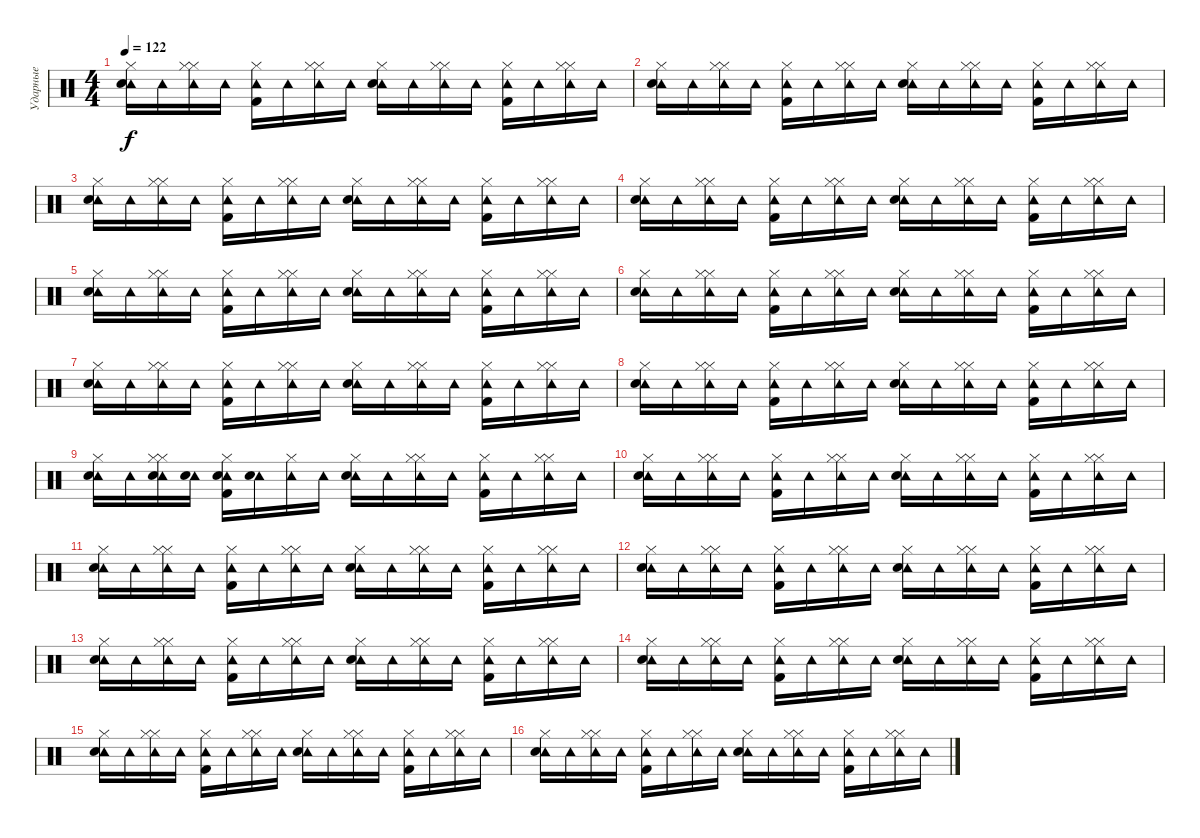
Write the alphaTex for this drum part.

\track ("Ударные" "Ударные") {instrument percussion}
\staff {score}
\articulation defaults
\ts (4 4)
\tempo 122
\clef neutral
\ks c
("Tambourine (hit)" "Hi-Hat (closed)" "Snare (hit) 2").16{dy f} "Tambourine (hit)".16 ("Tambourine (hit)" "Hi-Hat (closed)" "Hi-Hat (closed)").16 "Tambourine (hit)".16 ("Tambourine (hit)" "Hi-Hat (closed)" "Kick (hit) 2").16 "Tambourine (hit)".16 ("Tambourine (hit)" "Hi-Hat (closed)" "Hi-Hat (closed)").16 "Tambourine (hit)".16 ("Tambourine (hit)" "Hi-Hat (closed)" "Snare (hit) 2").16 "Tambourine (hit)".16 ("Tambourine (hit)" "Hi-Hat (closed)" "Hi-Hat (closed)").16 "Tambourine (hit)".16 ("Tambourine (hit)" "Hi-Hat (closed)" "Kick (hit) 2").16 "Tambourine (hit)".16 ("Tambourine (hit)" "Hi-Hat (closed)" "Hi-Hat (closed)").16 "Tambourine (hit)".16 |
("Tambourine (hit)" "Hi-Hat (closed)" "Snare (hit) 2").16 "Tambourine (hit)".16 ("Tambourine (hit)" "Hi-Hat (closed)" "Hi-Hat (closed)").16 "Tambourine (hit)".16 ("Tambourine (hit)" "Hi-Hat (closed)" "Kick (hit) 2").16 "Tambourine (hit)".16 ("Tambourine (hit)" "Hi-Hat (closed)" "Hi-Hat (closed)").16 "Tambourine (hit)".16 ("Tambourine (hit)" "Hi-Hat (closed)" "Snare (hit) 2").16 "Tambourine (hit)".16 ("Tambourine (hit)" "Hi-Hat (closed)" "Hi-Hat (closed)").16 "Tambourine (hit)".16 ("Tambourine (hit)" "Hi-Hat (closed)" "Kick (hit) 2").16 "Tambourine (hit)".16 ("Tambourine (hit)" "Hi-Hat (closed)" "Hi-Hat (closed)").16 "Tambourine (hit)".16 |
("Tambourine (hit)" "Hi-Hat (closed)" "Snare (hit) 2").16 "Tambourine (hit)".16 ("Tambourine (hit)" "Hi-Hat (closed)" "Hi-Hat (closed)").16 "Tambourine (hit)".16 ("Tambourine (hit)" "Hi-Hat (closed)" "Kick (hit) 2").16 "Tambourine (hit)".16 ("Tambourine (hit)" "Hi-Hat (closed)" "Hi-Hat (closed)").16 "Tambourine (hit)".16 ("Tambourine (hit)" "Hi-Hat (closed)" "Snare (hit) 2").16 "Tambourine (hit)".16 ("Tambourine (hit)" "Hi-Hat (closed)" "Hi-Hat (closed)").16 "Tambourine (hit)".16 ("Tambourine (hit)" "Hi-Hat (closed)" "Kick (hit) 2").16 "Tambourine (hit)".16 ("Tambourine (hit)" "Hi-Hat (closed)" "Hi-Hat (closed)").16 "Tambourine (hit)".16 |
("Tambourine (hit)" "Hi-Hat (closed)" "Snare (hit) 2").16 "Tambourine (hit)".16 ("Tambourine (hit)" "Hi-Hat (closed)" "Hi-Hat (closed)").16 "Tambourine (hit)".16 ("Tambourine (hit)" "Hi-Hat (closed)" "Kick (hit) 2").16 "Tambourine (hit)".16 ("Tambourine (hit)" "Hi-Hat (closed)" "Hi-Hat (closed)").16 "Tambourine (hit)".16 ("Tambourine (hit)" "Hi-Hat (closed)" "Snare (hit) 2").16 "Tambourine (hit)".16 ("Tambourine (hit)" "Hi-Hat (closed)" "Hi-Hat (closed)").16 "Tambourine (hit)".16 ("Tambourine (hit)" "Hi-Hat (closed)" "Kick (hit) 2").16 "Tambourine (hit)".16 ("Tambourine (hit)" "Hi-Hat (closed)" "Hi-Hat (closed)").16 "Tambourine (hit)".16 |
("Tambourine (hit)" "Hi-Hat (closed)" "Snare (hit) 2").16 "Tambourine (hit)".16 ("Tambourine (hit)" "Hi-Hat (closed)" "Hi-Hat (closed)").16 "Tambourine (hit)".16 ("Tambourine (hit)" "Hi-Hat (closed)" "Kick (hit) 2").16 "Tambourine (hit)".16 ("Tambourine (hit)" "Hi-Hat (closed)" "Hi-Hat (closed)").16 "Tambourine (hit)".16 ("Tambourine (hit)" "Hi-Hat (closed)" "Snare (hit) 2").16 "Tambourine (hit)".16 ("Tambourine (hit)" "Hi-Hat (closed)" "Hi-Hat (closed)").16 "Tambourine (hit)".16 ("Tambourine (hit)" "Hi-Hat (closed)" "Kick (hit) 2").16 "Tambourine (hit)".16 ("Tambourine (hit)" "Hi-Hat (closed)" "Hi-Hat (closed)").16 "Tambourine (hit)".16 |
("Tambourine (hit)" "Hi-Hat (closed)" "Snare (hit) 2").16 "Tambourine (hit)".16 ("Tambourine (hit)" "Hi-Hat (closed)" "Hi-Hat (closed)").16 "Tambourine (hit)".16 ("Tambourine (hit)" "Hi-Hat (closed)" "Kick (hit) 2").16 "Tambourine (hit)".16 ("Tambourine (hit)" "Hi-Hat (closed)" "Hi-Hat (closed)").16 "Tambourine (hit)".16 ("Tambourine (hit)" "Hi-Hat (closed)" "Snare (hit) 2").16 "Tambourine (hit)".16 ("Tambourine (hit)" "Hi-Hat (closed)" "Hi-Hat (closed)").16 "Tambourine (hit)".16 ("Tambourine (hit)" "Hi-Hat (closed)" "Kick (hit) 2").16 "Tambourine (hit)".16 ("Tambourine (hit)" "Hi-Hat (closed)" "Hi-Hat (closed)").16 "Tambourine (hit)".16 |
("Tambourine (hit)" "Hi-Hat (closed)" "Snare (hit) 2").16 "Tambourine (hit)".16 ("Tambourine (hit)" "Hi-Hat (closed)" "Hi-Hat (closed)").16 "Tambourine (hit)".16 ("Tambourine (hit)" "Hi-Hat (closed)" "Kick (hit) 2").16 "Tambourine (hit)".16 ("Tambourine (hit)" "Hi-Hat (closed)" "Hi-Hat (closed)").16 "Tambourine (hit)".16 ("Tambourine (hit)" "Hi-Hat (closed)" "Snare (hit) 2").16 "Tambourine (hit)".16 ("Tambourine (hit)" "Hi-Hat (closed)" "Hi-Hat (closed)").16 "Tambourine (hit)".16 ("Tambourine (hit)" "Hi-Hat (closed)" "Kick (hit) 2").16 "Tambourine (hit)".16 ("Tambourine (hit)" "Hi-Hat (closed)" "Hi-Hat (closed)").16 "Tambourine (hit)".16 |
("Tambourine (hit)" "Hi-Hat (closed)" "Snare (hit) 2").16 "Tambourine (hit)".16 ("Tambourine (hit)" "Hi-Hat (closed)" "Hi-Hat (closed)").16 "Tambourine (hit)".16 ("Tambourine (hit)" "Hi-Hat (closed)" "Kick (hit) 2").16 "Tambourine (hit)".16 ("Tambourine (hit)" "Hi-Hat (closed)" "Hi-Hat (closed)").16 "Tambourine (hit)".16 ("Tambourine (hit)" "Hi-Hat (closed)" "Snare (hit) 2").16 "Tambourine (hit)".16 ("Tambourine (hit)" "Hi-Hat (closed)" "Hi-Hat (closed)").16 "Tambourine (hit)".16 ("Tambourine (hit)" "Hi-Hat (closed)" "Kick (hit) 2").16 "Tambourine (hit)".16 ("Tambourine (hit)" "Hi-Hat (closed)" "Hi-Hat (closed)").16 "Tambourine (hit)".16 |
("Tambourine (hit)" "Hi-Hat (closed)" "Snare (hit) 2").16 "Tambourine (hit)".16 ("Tambourine (hit)" "Hi-Hat (closed)" "Hi-Hat (closed)" "Electric Snare (hit)").16 ("Tambourine (hit)" "Electric Snare (hit)").16 ("Tambourine (hit)" "Hi-Hat (closed)" "Kick (hit) 2" "Electric Snare (hit)").16 ("Tambourine (hit)" "Electric Snare (hit)").16 ("Tambourine (hit)" "Hi-Hat (closed)").16 "Tambourine (hit)".16 ("Tambourine (hit)" "Hi-Hat (closed)" "Snare (hit) 2").16 "Tambourine (hit)".16 ("Tambourine (hit)" "Hi-Hat (closed)" "Hi-Hat (closed)").16 "Tambourine (hit)".16 ("Tambourine (hit)" "Hi-Hat (closed)" "Kick (hit) 2").16 "Tambourine (hit)".16 ("Tambourine (hit)" "Hi-Hat (closed)" "Hi-Hat (closed)").16 "Tambourine (hit)".16 |
("Tambourine (hit)" "Hi-Hat (closed)" "Snare (hit) 2").16 "Tambourine (hit)".16 ("Tambourine (hit)" "Hi-Hat (closed)" "Hi-Hat (closed)").16 "Tambourine (hit)".16 ("Tambourine (hit)" "Hi-Hat (closed)" "Kick (hit) 2").16 "Tambourine (hit)".16 ("Tambourine (hit)" "Hi-Hat (closed)" "Hi-Hat (closed)").16 "Tambourine (hit)".16 ("Tambourine (hit)" "Hi-Hat (closed)" "Snare (hit) 2").16 "Tambourine (hit)".16 ("Tambourine (hit)" "Hi-Hat (closed)" "Hi-Hat (closed)").16 "Tambourine (hit)".16 ("Tambourine (hit)" "Hi-Hat (closed)" "Kick (hit) 2").16 "Tambourine (hit)".16 ("Tambourine (hit)" "Hi-Hat (closed)" "Hi-Hat (closed)").16 "Tambourine (hit)".16 |
("Tambourine (hit)" "Hi-Hat (closed)" "Snare (hit) 2").16 "Tambourine (hit)".16 ("Tambourine (hit)" "Hi-Hat (closed)" "Hi-Hat (closed)").16 "Tambourine (hit)".16 ("Tambourine (hit)" "Hi-Hat (closed)" "Kick (hit) 2").16 "Tambourine (hit)".16 ("Tambourine (hit)" "Hi-Hat (closed)" "Hi-Hat (closed)").16 "Tambourine (hit)".16 ("Tambourine (hit)" "Hi-Hat (closed)" "Snare (hit) 2").16 "Tambourine (hit)".16 ("Tambourine (hit)" "Hi-Hat (closed)" "Hi-Hat (closed)").16 "Tambourine (hit)".16 ("Tambourine (hit)" "Hi-Hat (closed)" "Kick (hit) 2").16 "Tambourine (hit)".16 ("Tambourine (hit)" "Hi-Hat (closed)" "Hi-Hat (closed)").16 "Tambourine (hit)".16 |
("Tambourine (hit)" "Hi-Hat (closed)" "Snare (hit) 2").16 "Tambourine (hit)".16 ("Tambourine (hit)" "Hi-Hat (closed)" "Hi-Hat (closed)").16 "Tambourine (hit)".16 ("Tambourine (hit)" "Hi-Hat (closed)" "Kick (hit) 2").16 "Tambourine (hit)".16 ("Tambourine (hit)" "Hi-Hat (closed)" "Hi-Hat (closed)").16 "Tambourine (hit)".16 ("Tambourine (hit)" "Hi-Hat (closed)" "Snare (hit) 2").16 "Tambourine (hit)".16 ("Tambourine (hit)" "Hi-Hat (closed)" "Hi-Hat (closed)").16 "Tambourine (hit)".16 ("Tambourine (hit)" "Hi-Hat (closed)" "Kick (hit) 2").16 "Tambourine (hit)".16 ("Tambourine (hit)" "Hi-Hat (closed)" "Hi-Hat (closed)").16 "Tambourine (hit)".16 |
("Tambourine (hit)" "Hi-Hat (closed)" "Snare (hit) 2").16 "Tambourine (hit)".16 ("Tambourine (hit)" "Hi-Hat (closed)" "Hi-Hat (closed)").16 "Tambourine (hit)".16 ("Tambourine (hit)" "Hi-Hat (closed)" "Kick (hit) 2").16 "Tambourine (hit)".16 ("Tambourine (hit)" "Hi-Hat (closed)" "Hi-Hat (closed)").16 "Tambourine (hit)".16 ("Tambourine (hit)" "Hi-Hat (closed)" "Snare (hit) 2").16 "Tambourine (hit)".16 ("Tambourine (hit)" "Hi-Hat (closed)" "Hi-Hat (closed)").16 "Tambourine (hit)".16 ("Tambourine (hit)" "Hi-Hat (closed)" "Kick (hit) 2").16 "Tambourine (hit)".16 ("Tambourine (hit)" "Hi-Hat (closed)" "Hi-Hat (closed)").16 "Tambourine (hit)".16 |
("Tambourine (hit)" "Hi-Hat (closed)" "Snare (hit) 2").16 "Tambourine (hit)".16 ("Tambourine (hit)" "Hi-Hat (closed)" "Hi-Hat (closed)").16 "Tambourine (hit)".16 ("Tambourine (hit)" "Hi-Hat (closed)" "Kick (hit) 2").16 "Tambourine (hit)".16 ("Tambourine (hit)" "Hi-Hat (closed)" "Hi-Hat (closed)").16 "Tambourine (hit)".16 ("Tambourine (hit)" "Hi-Hat (closed)" "Snare (hit) 2").16 "Tambourine (hit)".16 ("Tambourine (hit)" "Hi-Hat (closed)" "Hi-Hat (closed)").16 "Tambourine (hit)".16 ("Tambourine (hit)" "Hi-Hat (closed)" "Kick (hit) 2").16 "Tambourine (hit)".16 ("Tambourine (hit)" "Hi-Hat (closed)" "Hi-Hat (closed)").16 "Tambourine (hit)".16 |
("Tambourine (hit)" "Hi-Hat (closed)" "Snare (hit) 2").16 "Tambourine (hit)".16 ("Tambourine (hit)" "Hi-Hat (closed)" "Hi-Hat (closed)").16 "Tambourine (hit)".16 ("Tambourine (hit)" "Hi-Hat (closed)" "Kick (hit) 2").16 "Tambourine (hit)".16 ("Tambourine (hit)" "Hi-Hat (closed)" "Hi-Hat (closed)").16 "Tambourine (hit)".16 ("Tambourine (hit)" "Hi-Hat (closed)" "Snare (hit) 2").16 "Tambourine (hit)".16 ("Tambourine (hit)" "Hi-Hat (closed)" "Hi-Hat (closed)").16 "Tambourine (hit)".16 ("Tambourine (hit)" "Hi-Hat (closed)" "Kick (hit) 2").16 "Tambourine (hit)".16 ("Tambourine (hit)" "Hi-Hat (closed)" "Hi-Hat (closed)").16 "Tambourine (hit)".16 |
("Tambourine (hit)" "Hi-Hat (closed)" "Snare (hit) 2").16 "Tambourine (hit)".16 ("Tambourine (hit)" "Hi-Hat (closed)" "Hi-Hat (closed)").16 "Tambourine (hit)".16 ("Tambourine (hit)" "Hi-Hat (closed)" "Kick (hit) 2").16 "Tambourine (hit)".16 ("Tambourine (hit)" "Hi-Hat (closed)" "Hi-Hat (closed)").16 "Tambourine (hit)".16 ("Tambourine (hit)" "Hi-Hat (closed)" "Snare (hit) 2").16 "Tambourine (hit)".16 ("Tambourine (hit)" "Hi-Hat (closed)" "Hi-Hat (closed)").16 "Tambourine (hit)".16 ("Tambourine (hit)" "Hi-Hat (closed)" "Kick (hit) 2").16 "Tambourine (hit)".16 ("Tambourine (hit)" "Hi-Hat (closed)" "Hi-Hat (closed)").16 "Tambourine (hit)".16
